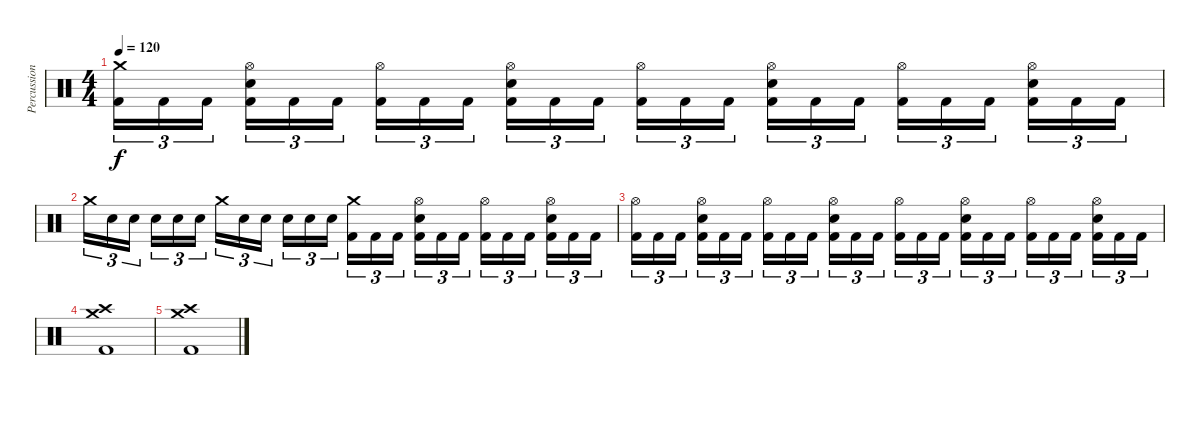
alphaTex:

\track ("Percussion" "Percussion") {instrument percussion}
\staff {score}
\articulation defaults
\ts (4 4)
\tempo 120
\clef neutral
\ks c
("Kick (hit) 2" "Crash medium (hit)").16{tu (3 2) dy f} "Kick (hit) 2".16{tu (3 2)} "Kick (hit) 2".16{tu (3 2)} ("Kick (hit) 2" "Snare (hit) 2" "Hi-Hat (open)").16{tu (3 2)} "Kick (hit) 2".16{tu (3 2)} "Kick (hit) 2".16{tu (3 2)} ("Kick (hit) 2" "Hi-Hat (open)").16{tu (3 2)} "Kick (hit) 2".16{tu (3 2)} "Kick (hit) 2".16{tu (3 2)} ("Kick (hit) 2" "Snare (hit) 2" "Hi-Hat (open)").16{tu (3 2)} "Kick (hit) 2".16{tu (3 2)} "Kick (hit) 2".16{tu (3 2)} ("Kick (hit) 2" "Hi-Hat (open)").16{tu (3 2)} "Kick (hit) 2".16{tu (3 2)} "Kick (hit) 2".16{tu (3 2)} ("Kick (hit) 2" "Snare (hit) 2" "Hi-Hat (open)").16{tu (3 2)} "Kick (hit) 2".16{tu (3 2)} "Kick (hit) 2".16{tu (3 2)} ("Kick (hit) 2" "Hi-Hat (open)").16{tu (3 2)} "Kick (hit) 2".16{tu (3 2)} "Kick (hit) 2".16{tu (3 2)} ("Kick (hit) 2" "Snare (hit) 2" "Hi-Hat (open)").16{tu (3 2)} "Kick (hit) 2".16{tu (3 2)} "Kick (hit) 2".16{tu (3 2)} |
"Crash medium (hit)".16{tu (3 2)} "Snare (hit) 2".16{tu (3 2)} "Snare (hit) 2".16{tu (3 2)} "Snare (hit) 2".16{tu (3 2)} "Snare (hit) 2".16{tu (3 2)} "Snare (hit) 2".16{tu (3 2)} "Crash medium (hit)".16{tu (3 2)} "Snare (hit) 2".16{tu (3 2)} "Snare (hit) 2".16{tu (3 2)} "Snare (hit) 2".16{tu (3 2)} "Snare (hit) 2".16{tu (3 2)} "Snare (hit) 2".16{tu (3 2)} ("Kick (hit) 2" "Crash medium (hit)").16{tu (3 2)} "Kick (hit) 2".16{tu (3 2)} "Kick (hit) 2".16{tu (3 2)} ("Kick (hit) 2" "Snare (hit) 2" "Hi-Hat (open)").16{tu (3 2)} "Kick (hit) 2".16{tu (3 2)} "Kick (hit) 2".16{tu (3 2)} ("Kick (hit) 2" "Hi-Hat (open)").16{tu (3 2)} "Kick (hit) 2".16{tu (3 2)} "Kick (hit) 2".16{tu (3 2)} ("Kick (hit) 2" "Snare (hit) 2" "Hi-Hat (open)").16{tu (3 2)} "Kick (hit) 2".16{tu (3 2)} "Kick (hit) 2".16{tu (3 2)} |
("Kick (hit) 2" "Hi-Hat (open)").16{tu (3 2)} "Kick (hit) 2".16{tu (3 2)} "Kick (hit) 2".16{tu (3 2)} ("Kick (hit) 2" "Snare (hit) 2" "Hi-Hat (open)").16{tu (3 2)} "Kick (hit) 2".16{tu (3 2)} "Kick (hit) 2".16{tu (3 2)} ("Kick (hit) 2" "Hi-Hat (open)").16{tu (3 2)} "Kick (hit) 2".16{tu (3 2)} "Kick (hit) 2".16{tu (3 2)} ("Kick (hit) 2" "Snare (hit) 2" "Hi-Hat (open)").16{tu (3 2)} "Kick (hit) 2".16{tu (3 2)} "Kick (hit) 2".16{tu (3 2)} ("Kick (hit) 2" "Hi-Hat (open)").16{tu (3 2)} "Kick (hit) 2".16{tu (3 2)} "Kick (hit) 2".16{tu (3 2)} ("Kick (hit) 2" "Snare (hit) 2" "Hi-Hat (open)").16{tu (3 2)} "Kick (hit) 2".16{tu (3 2)} "Kick (hit) 2".16{tu (3 2)} ("Kick (hit) 2" "Hi-Hat (open)").16{tu (3 2)} "Kick (hit) 2".16{tu (3 2)} "Kick (hit) 2".16{tu (3 2)} ("Kick (hit) 2" "Snare (hit) 2" "Hi-Hat (open)").16{tu (3 2)} "Kick (hit) 2".16{tu (3 2)} "Kick (hit) 2".16{tu (3 2)} |
("Crash high (hit)" "Kick (hit) 2" "Crash medium (hit)").1 |
("Crash high (hit)" "Kick (hit) 2" "Crash medium (hit)").1
